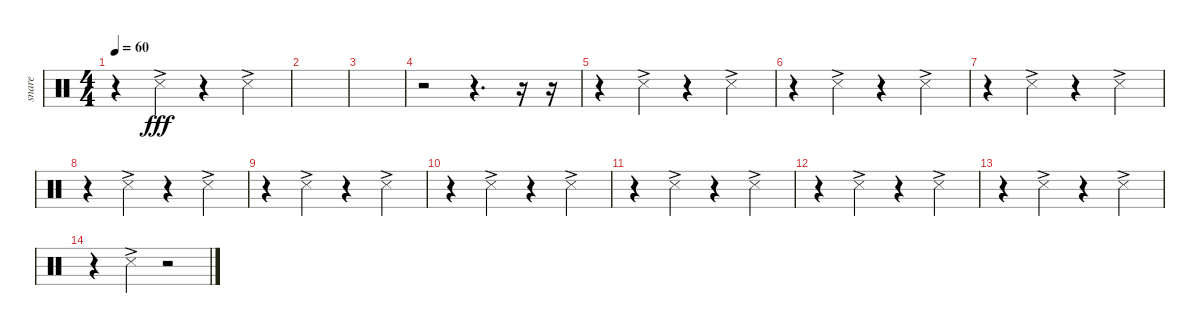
\track ("snare" "snare") {instrument percussion}
\staff {score}
\articulation defaults
\ts (4 4)
\tempo 60
\clef neutral
\ks c
r.4{dy fff} "Snare (side stick) 3"{ac}.4 r.4 "Snare (side stick) 3"{ac}.4 |
|
|
r.2 r.4{d} r.16 r.16 |
r.4 "Snare (side stick) 3"{ac}.4 r.4 "Snare (side stick) 3"{ac}.4 |
r.4 "Snare (side stick) 3"{ac}.4 r.4 "Snare (side stick) 3"{ac}.4 |
r.4 "Snare (side stick) 3"{ac}.4 r.4 "Snare (side stick) 3"{ac}.4 |
r.4 "Snare (side stick) 3"{ac}.4 r.4 "Snare (side stick) 3"{ac}.4 |
r.4 "Snare (side stick) 3"{ac}.4 r.4 "Snare (side stick) 3"{ac}.4 |
r.4 "Snare (side stick) 3"{ac}.4 r.4 "Snare (side stick) 3"{ac}.4 |
r.4 "Snare (side stick) 3"{ac}.4 r.4 "Snare (side stick) 3"{ac}.4 |
r.4 "Snare (side stick) 3"{ac}.4 r.4 "Snare (side stick) 3"{ac}.4 |
r.4 "Snare (side stick) 3"{ac}.4 r.4 "Snare (side stick) 3"{ac}.4 |
r.4 "Snare (side stick) 3"{ac}.4 r.2
